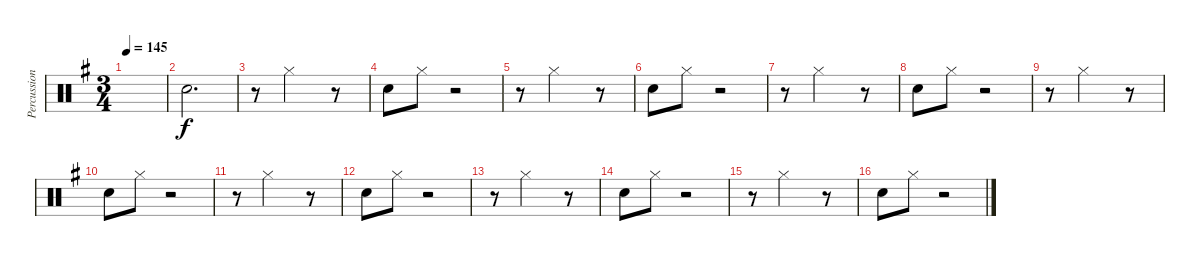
\track ("Percussioni" "Percussion") {instrument percussion}
\staff {score}
\articulation defaults
\ts (3 4)
\tempo 145
\clef neutral
\ks g
|
"Snare (hit) 2".2{d} |
r.8 "Hi-Hat (closed)".2 r.8 |
"Snare (hit) 2".8 "Hi-Hat (closed)".8 r.2 |
r.8 "Hi-Hat (closed)".2 r.8 |
"Snare (hit) 2".8 "Hi-Hat (closed)".8 r.2 |
r.8 "Hi-Hat (closed)".2 r.8 |
"Snare (hit) 2".8 "Hi-Hat (closed)".8 r.2 |
r.8 "Hi-Hat (closed)".2 r.8 |
"Snare (hit) 2".8 "Hi-Hat (closed)".8 r.2 |
r.8 "Hi-Hat (closed)".2 r.8 |
"Snare (hit) 2".8 "Hi-Hat (closed)".8 r.2 |
r.8 "Hi-Hat (closed)".2 r.8 |
"Snare (hit) 2".8 "Hi-Hat (closed)".8 r.2 |
r.8 "Hi-Hat (closed)".2 r.8 |
"Snare (hit) 2".8 "Hi-Hat (closed)".8 r.2
